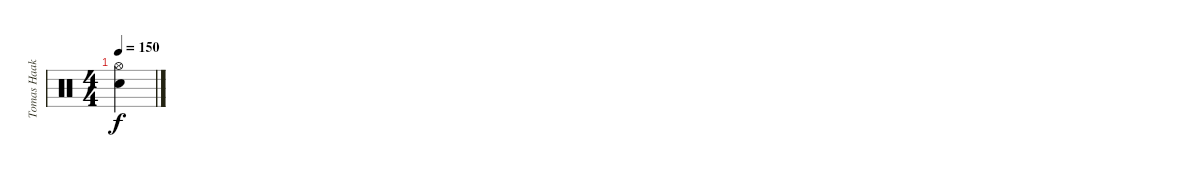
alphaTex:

\track ("Tomas Haake - Snares and cymbal" "Tomas Haak") {instrument percussion}
\staff {score}
\articulation defaults
\ts (4 4)
\tempo 150
\clef neutral
\ks c
("Hi-Hat (open)" "Snare (hit) 2").4{dy f}
